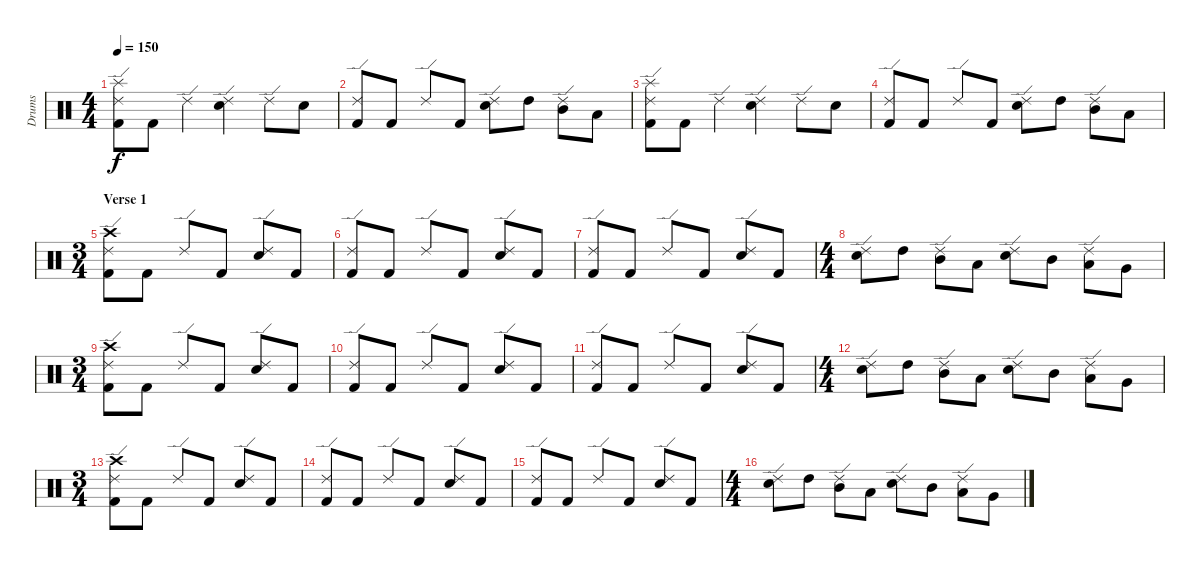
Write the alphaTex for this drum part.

\track ("Drums" "Drums") {instrument percussion}
\staff {score}
\articulation defaults
\ts (4 4)
\tempo 150
\clef neutral
\ks c
("Splash (hit)" "Ride (edge) 2" "Kick (hit) 2").8{dy f} "Kick (hit) 2".8 "Ride (edge) 2".4 ("Ride (edge) 2" "Electric Snare (hit)").4 "Ride (edge) 2".8 "Electric Snare (hit)".8 |
("Ride (edge) 2" "Kick (hit) 2").8 "Kick (hit) 2".8 "Ride (edge) 2".8 "Kick (hit) 2".8 ("Ride (edge) 2" "Electric Snare (hit)").8 "High Tom (hit)".8 ("Ride (edge) 2" "Mid Tom (hit)").8 "Low Tom (hit)".8 |
("Splash (hit)" "Ride (edge) 2" "Kick (hit) 2").8 "Kick (hit) 2".8 "Ride (edge) 2".4 ("Ride (edge) 2" "Electric Snare (hit)").4 "Ride (edge) 2".8 "Electric Snare (hit)".8 |
("Ride (edge) 2" "Kick (hit) 2").8 "Kick (hit) 2".8 "Ride (edge) 2".8 "Kick (hit) 2".8 ("Ride (edge) 2" "Electric Snare (hit)").8 "High Tom (hit)".8 ("Ride (edge) 2" "Mid Tom (hit)").8 "Low Tom (hit)".8 |
\ts (3 4)
\section ("" "Verse 1")
("Crash high (hit)" "Ride (edge) 2" "Kick (hit) 2").8 "Kick (hit) 2".8 "Ride (edge) 2".8 "Kick (hit) 2".8 ("Ride (edge) 2" "Electric Snare (hit)").8 "Kick (hit) 2".8 |
("Ride (edge) 2" "Kick (hit) 2").8 "Kick (hit) 2".8 "Ride (edge) 2".8 "Kick (hit) 2".8 ("Ride (edge) 2" "Electric Snare (hit)").8 "Kick (hit) 2".8 |
("Ride (edge) 2" "Kick (hit) 2").8 "Kick (hit) 2".8 "Ride (edge) 2".8 "Kick (hit) 2".8 ("Ride (edge) 2" "Electric Snare (hit)").8 "Kick (hit) 2".8 |
\ts (4 4)
("Ride (edge) 2" "Electric Snare (hit)").8 "High Tom (hit)".8 ("Ride (edge) 2" "Mid Tom (hit)").8 "Low Tom (hit)".8 ("Ride (edge) 2" "Electric Snare (hit)").8 "Mid Tom (hit)".8 ("Ride (edge) 2" "Low Tom (hit)").8 "Very Low Tom (hit)".8 |
\ts (3 4)
("Crash high (hit)" "Ride (edge) 2" "Kick (hit) 2").8 "Kick (hit) 2".8 "Ride (edge) 2".8 "Kick (hit) 2".8 ("Ride (edge) 2" "Electric Snare (hit)").8 "Kick (hit) 2".8 |
("Ride (edge) 2" "Kick (hit) 2").8 "Kick (hit) 2".8 "Ride (edge) 2".8 "Kick (hit) 2".8 ("Ride (edge) 2" "Electric Snare (hit)").8 "Kick (hit) 2".8 |
("Ride (edge) 2" "Kick (hit) 2").8 "Kick (hit) 2".8 "Ride (edge) 2".8 "Kick (hit) 2".8 ("Ride (edge) 2" "Electric Snare (hit)").8 "Kick (hit) 2".8 |
\ts (4 4)
("Ride (edge) 2" "Electric Snare (hit)").8 "High Tom (hit)".8 ("Ride (edge) 2" "Mid Tom (hit)").8 "Low Tom (hit)".8 ("Ride (edge) 2" "Electric Snare (hit)").8 "Mid Tom (hit)".8 ("Ride (edge) 2" "Low Tom (hit)").8 "Very Low Tom (hit)".8 |
\ts (3 4)
("Crash high (hit)" "Ride (edge) 2" "Kick (hit) 2").8 "Kick (hit) 2".8 "Ride (edge) 2".8 "Kick (hit) 2".8 ("Ride (edge) 2" "Electric Snare (hit)").8 "Kick (hit) 2".8 |
("Ride (edge) 2" "Kick (hit) 2").8 "Kick (hit) 2".8 "Ride (edge) 2".8 "Kick (hit) 2".8 ("Ride (edge) 2" "Electric Snare (hit)").8 "Kick (hit) 2".8 |
("Ride (edge) 2" "Kick (hit) 2").8 "Kick (hit) 2".8 "Ride (edge) 2".8 "Kick (hit) 2".8 ("Ride (edge) 2" "Electric Snare (hit)").8 "Kick (hit) 2".8 |
\ts (4 4)
("Ride (edge) 2" "Electric Snare (hit)").8 "High Tom (hit)".8 ("Ride (edge) 2" "Mid Tom (hit)").8 "Low Tom (hit)".8 ("Ride (edge) 2" "Electric Snare (hit)").8 "Mid Tom (hit)".8 ("Ride (edge) 2" "Low Tom (hit)").8 "Very Low Tom (hit)".8
